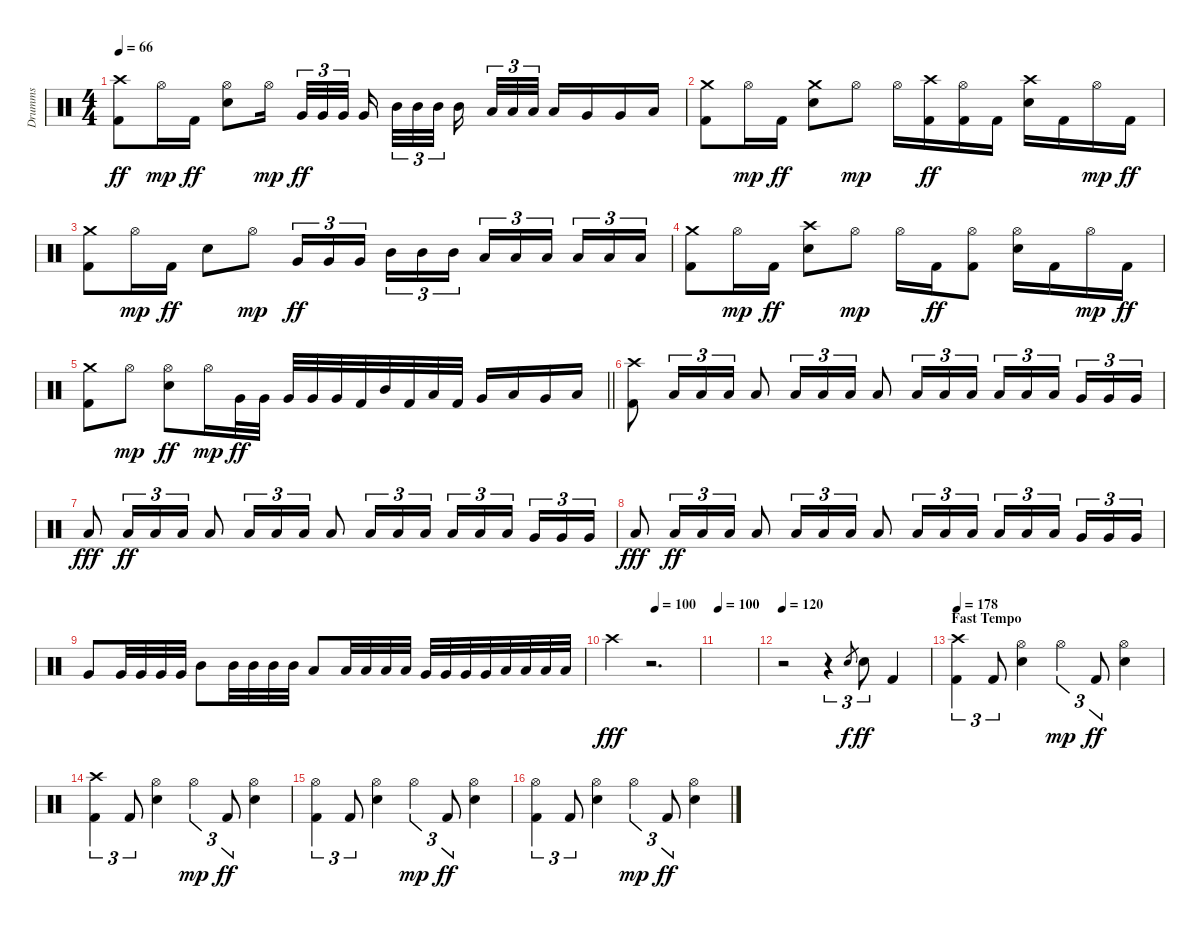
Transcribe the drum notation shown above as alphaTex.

\track ("Drumms" "Drumms") {instrument percussion}
\staff {score}
\articulation defaults
\ts (4 4)
\tempo 66
\clef neutral
\ks c
("Crash high (hit)" "Kick (hit) 2").8{dy ff} "Hi-Hat (open)".16{dy mp} "Kick (hit) 2".16{dy ff} ("Hi-Hat (open)" "Electric Snare (hit)").8 "Hi-Hat (open)".16{dy mp} "Very Low Tom (hit)".32{tu (3 2) dy ff} "Very Low Tom (hit)".32{tu (3 2)} "Very Low Tom (hit)".32{tu (3 2)} "Very Low Tom (hit)".16 "Mid Tom (hit)".32{tu (3 2)} "Mid Tom (hit)".32{tu (3 2)} "Mid Tom (hit)".32{tu (3 2)} "Mid Tom (hit)".16 "Low Tom (hit)".32{tu (3 2)} "Low Tom (hit)".32{tu (3 2)} "Low Tom (hit)".32{tu (3 2)} "Low Tom (hit)".16 "Very Low Tom (hit)".16 "Very Low Tom (hit)".16 "Low Floor Tom (hit)".16 |
("Crash medium (hit)" "Kick (hit) 2").8 "Hi-Hat (open)".16{dy mp} "Kick (hit) 2".16{dy ff} ("Crash medium (hit)" "Electric Snare (hit)").8 "Hi-Hat (open)".8{dy mp} "Hi-Hat (open)".16 ("Crash high (hit)" "Kick (hit) 2").16{dy ff} ("Hi-Hat (open)" "Kick (hit) 2").16 "Kick (hit) 2".16 ("Crash high (hit)" "Electric Snare (hit)").16 "Kick (hit) 2".16 "Hi-Hat (open)".16{dy mp} "Kick (hit) 2".16{dy ff} |
("Crash medium (hit)" "Kick (hit) 2").8 "Hi-Hat (open)".16{dy mp} "Kick (hit) 2".16{dy ff} "Electric Snare (hit)".8 "Hi-Hat (open)".8{dy mp} "Very Low Tom (hit)".16{tu (3 2) dy ff} "Very Low Tom (hit)".16{tu (3 2)} "Very Low Tom (hit)".16{tu (3 2)} "Mid Tom (hit)".16{tu (3 2)} "Mid Tom (hit)".16{tu (3 2)} "Mid Tom (hit)".16{tu (3 2)} "Low Tom (hit)".16{tu (3 2)} "Low Tom (hit)".16{tu (3 2)} "Low Tom (hit)".16{tu (3 2)} "Low Floor Tom (hit)".16{tu (3 2)} "Low Floor Tom (hit)".16{tu (3 2)} "Low Floor Tom (hit)".16{tu (3 2)} |
("Crash medium (hit)" "Kick (hit) 2").8 "Hi-Hat (open)".16{dy mp} "Kick (hit) 2".16{dy ff} ("Crash high (hit)" "Electric Snare (hit)").8 "Hi-Hat (open)".8{dy mp} "Hi-Hat (open)".16 "Kick (hit) 2".16{dy ff} ("Hi-Hat (open)" "Kick (hit) 2").8 ("Hi-Hat (open)" "Electric Snare (hit)").16 "Kick (hit) 2".16 "Hi-Hat (open)".16{dy mp} "Kick (hit) 2".16{dy ff} |
\barLineRight lightlight
("Crash medium (hit)" "Kick (hit) 2").8 "Hi-Hat (open)".8{dy mp} ("Hi-Hat (open)" "Electric Snare (hit)").8{dy ff} "Hi-Hat (open)".16{dy mp} "Very Low Tom (hit)".32{dy ff} "Very Low Tom (hit)".32 "Very Low Tom (hit)".32 "Very Low Tom (hit)".32 "Very Low Tom (hit)".32 "Kick (hit) 2".32 "Mid Tom (hit)".32 "Kick (hit) 2".32 "Low Tom (hit)".32 "Kick (hit) 2".32 "Very Low Tom (hit)".16 "Low Tom (hit)".16 "Very Low Tom (hit)".16 "Low Floor Tom (hit)".16 |
\section ("" "")
("Crash high (hit)" "Kick (hit) 2").8 "Low Tom (hit)".16{tu (3 2)} "Low Tom (hit)".16{tu (3 2)} "Low Tom (hit)".16{tu (3 2)} "Low Tom (hit)".8 "Low Tom (hit)".16{tu (3 2)} "Low Tom (hit)".16{tu (3 2)} "Low Tom (hit)".16{tu (3 2)} "Low Tom (hit)".8 "Low Tom (hit)".16{tu (3 2)} "Low Tom (hit)".16{tu (3 2)} "Low Tom (hit)".16{tu (3 2)} "Low Tom (hit)".16{tu (3 2)} "Low Tom (hit)".16{tu (3 2)} "Low Tom (hit)".16{tu (3 2)} "Very Low Tom (hit)".16{tu (3 2)} "Very Low Tom (hit)".16{tu (3 2)} "Very Low Tom (hit)".16{tu (3 2)} |
"Low Tom (hit)".8{dy fff} "Low Tom (hit)".16{tu (3 2) dy ff} "Low Tom (hit)".16{tu (3 2)} "Low Tom (hit)".16{tu (3 2)} "Low Tom (hit)".8 "Low Tom (hit)".16{tu (3 2)} "Low Tom (hit)".16{tu (3 2)} "Low Tom (hit)".16{tu (3 2)} "Low Tom (hit)".8 "Low Tom (hit)".16{tu (3 2)} "Low Tom (hit)".16{tu (3 2)} "Low Tom (hit)".16{tu (3 2)} "Low Tom (hit)".16{tu (3 2)} "Low Tom (hit)".16{tu (3 2)} "Low Tom (hit)".16{tu (3 2)} "Very Low Tom (hit)".16{tu (3 2)} "Very Low Tom (hit)".16{tu (3 2)} "Very Low Tom (hit)".16{tu (3 2)} |
"Low Tom (hit)".8{dy fff} "Low Tom (hit)".16{tu (3 2) dy ff} "Low Tom (hit)".16{tu (3 2)} "Low Tom (hit)".16{tu (3 2)} "Low Tom (hit)".8 "Low Tom (hit)".16{tu (3 2)} "Low Tom (hit)".16{tu (3 2)} "Low Tom (hit)".16{tu (3 2)} "Low Tom (hit)".8 "Low Tom (hit)".16{tu (3 2)} "Low Tom (hit)".16{tu (3 2)} "Low Tom (hit)".16{tu (3 2)} "Low Tom (hit)".16{tu (3 2)} "Low Tom (hit)".16{tu (3 2)} "Low Tom (hit)".16{tu (3 2)} "Very Low Tom (hit)".16{tu (3 2)} "Very Low Tom (hit)".16{tu (3 2)} "Very Low Tom (hit)".16{tu (3 2)} |
"Very Low Tom (hit)".8 "Very Low Tom (hit)".32 "Very Low Tom (hit)".32 "Very Low Tom (hit)".32 "Very Low Tom (hit)".32 "Mid Tom (hit)".8 "Mid Tom (hit)".32 "Mid Tom (hit)".32 "Mid Tom (hit)".32 "Mid Tom (hit)".32 "Low Tom (hit)".8 "Low Tom (hit)".32 "Low Tom (hit)".32 "Low Tom (hit)".32 "Low Tom (hit)".32 "Very Low Tom (hit)".32 "Very Low Tom (hit)".32 "Very Low Tom (hit)".32 "Very Low Tom (hit)".32 "Low Floor Tom (hit)".32 "Low Floor Tom (hit)".32 "Low Floor Tom (hit)".32 "Low Floor Tom (hit)".32 |
\tempo (100 0.49895833333333334)
"Crash high (hit)".4{dy fff} r.2{d} |
\tempo 100
|
\tempo 120
r.2 r.4{tu (3 2)} "Electric Snare (hit)".8{gr dy f} "Electric Snare (hit)".8{tu (3 2) dy ff} "Kick (hit) 2".4 |
\section ("" "Fast Tempo")
\tempo 178
("Crash high (hit)" "Kick (hit) 2").4{tu (3 2)} "Kick (hit) 2".8{tu (3 2)} ("Hi-Hat (open)" "Electric Snare (hit)").4 "Hi-Hat (open)".4{tu (3 2) dy mp} "Kick (hit) 2".8{tu (3 2) dy ff} ("Hi-Hat (open)" "Electric Snare (hit)").4 |
("Crash high (hit)" "Kick (hit) 2").4{tu (3 2)} "Kick (hit) 2".8{tu (3 2)} ("Hi-Hat (open)" "Electric Snare (hit)").4 "Hi-Hat (open)".4{tu (3 2) dy mp} "Kick (hit) 2".8{tu (3 2) dy ff} ("Hi-Hat (open)" "Electric Snare (hit)").4 |
("Hi-Hat (open)" "Kick (hit) 2").4{tu (3 2)} "Kick (hit) 2".8{tu (3 2)} ("Hi-Hat (open)" "Electric Snare (hit)").4 "Hi-Hat (open)".4{tu (3 2) dy mp} "Kick (hit) 2".8{tu (3 2) dy ff} ("Hi-Hat (open)" "Electric Snare (hit)").4 |
("Hi-Hat (open)" "Kick (hit) 2").4{tu (3 2)} "Kick (hit) 2".8{tu (3 2)} ("Hi-Hat (open)" "Electric Snare (hit)").4 "Hi-Hat (open)".4{tu (3 2) dy mp} "Kick (hit) 2".8{tu (3 2) dy ff} ("Hi-Hat (open)" "Electric Snare (hit)").4
